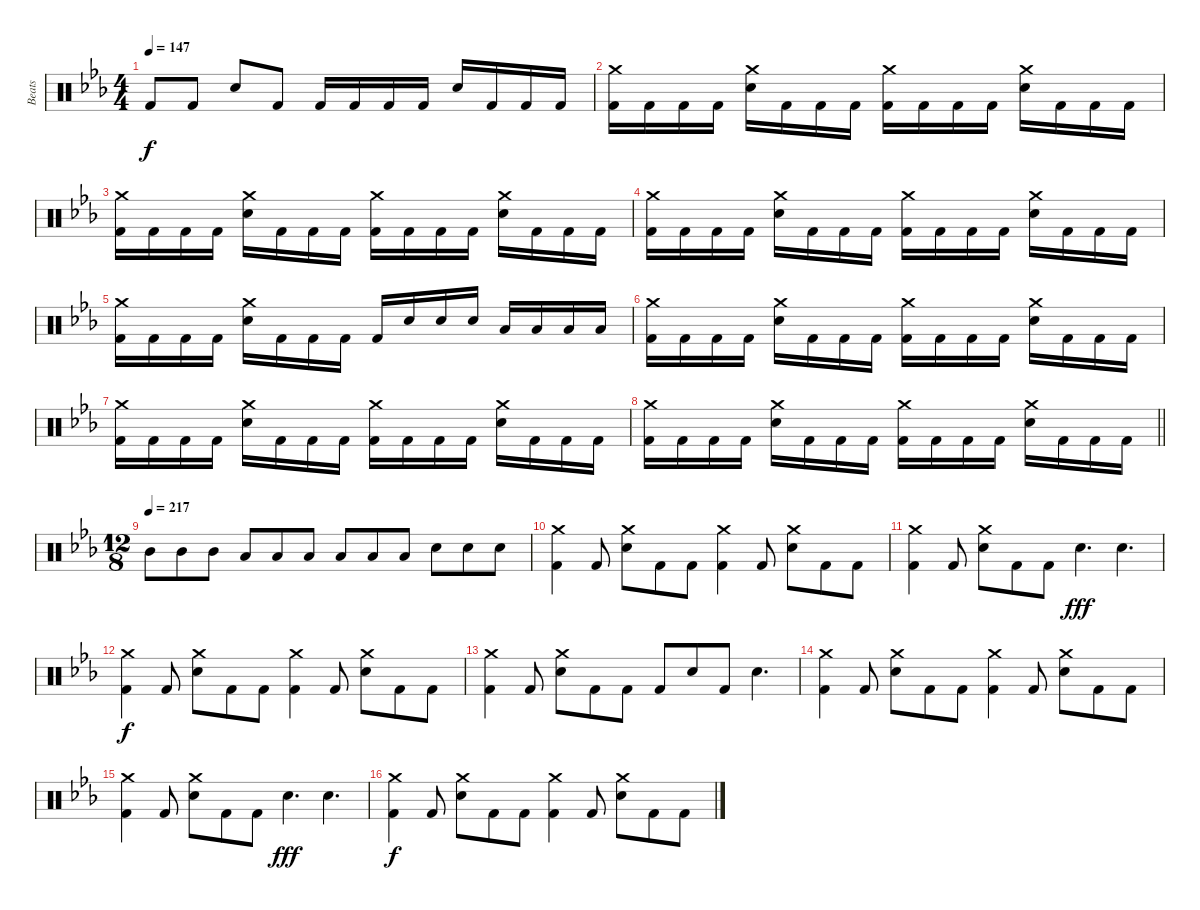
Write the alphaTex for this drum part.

\track ("Beats" "Beats") {instrument percussion}
\staff {score}
\articulation defaults
\ts (4 4)
\tempo 147
\clef neutral
\ks eb "Kick (hit) 2".8{dy f} "Kick (hit) 2".8 "Snare (hit) 2".8 "Kick (hit) 2".8 "Kick (hit) 2".16 "Kick (hit) 2".16 "Kick (hit) 2".16 "Kick (hit) 2".16 "Snare (hit) 2".16 "Kick (hit) 2".16 "Kick (hit) 2".16 "Kick (hit) 2".16
|
("Crash medium (hit)" "Kick (hit) 2").16 "Kick (hit) 2".16 "Kick (hit) 2".16 "Kick (hit) 2".16 ("Crash medium (hit)" "Snare (hit) 2").16 "Kick (hit) 2".16 "Kick (hit) 2".16 "Kick (hit) 2".16 ("Crash medium (hit)" "Kick (hit) 2").16 "Kick (hit) 2".16 "Kick (hit) 2".16 "Kick (hit) 2".16 ("Crash medium (hit)" "Snare (hit) 2").16 "Kick (hit) 2".16 "Kick (hit) 2".16 "Kick (hit) 2".16 |
("Crash medium (hit)" "Kick (hit) 2").16 "Kick (hit) 2".16 "Kick (hit) 2".16 "Kick (hit) 2".16 ("Crash medium (hit)" "Snare (hit) 2").16 "Kick (hit) 2".16 "Kick (hit) 2".16 "Kick (hit) 2".16 ("Crash medium (hit)" "Kick (hit) 2").16 "Kick (hit) 2".16 "Kick (hit) 2".16 "Kick (hit) 2".16 ("Crash medium (hit)" "Snare (hit) 2").16 "Kick (hit) 2".16 "Kick (hit) 2".16 "Kick (hit) 2".16 |
("Crash medium (hit)" "Kick (hit) 2").16 "Kick (hit) 2".16 "Kick (hit) 2".16 "Kick (hit) 2".16 ("Crash medium (hit)" "Snare (hit) 2").16 "Kick (hit) 2".16 "Kick (hit) 2".16 "Kick (hit) 2".16 ("Crash medium (hit)" "Kick (hit) 2").16 "Kick (hit) 2".16 "Kick (hit) 2".16 "Kick (hit) 2".16 ("Crash medium (hit)" "Snare (hit) 2").16 "Kick (hit) 2".16 "Kick (hit) 2".16 "Kick (hit) 2".16 |
("Crash medium (hit)" "Kick (hit) 2").16 "Kick (hit) 2".16 "Kick (hit) 2".16 "Kick (hit) 2".16 ("Crash medium (hit)" "Snare (hit) 2").16 "Kick (hit) 2".16 "Kick (hit) 2".16 "Kick (hit) 2".16 "Kick (hit) 2".16 "Snare (hit) 2".16 "Snare (hit) 2".16 "Snare (hit) 2".16 "Low Tom (hit)".16 "Low Tom (hit)".16 "Low Floor Tom (hit)".16 "Low Floor Tom (hit)".16 |
("Crash medium (hit)" "Kick (hit) 2").16 "Kick (hit) 2".16 "Kick (hit) 2".16 "Kick (hit) 2".16 ("Crash medium (hit)" "Snare (hit) 2").16 "Kick (hit) 2".16 "Kick (hit) 2".16 "Kick (hit) 2".16 ("Crash medium (hit)" "Kick (hit) 2").16 "Kick (hit) 2".16 "Kick (hit) 2".16 "Kick (hit) 2".16 ("Crash medium (hit)" "Snare (hit) 2").16 "Kick (hit) 2".16 "Kick (hit) 2".16 "Kick (hit) 2".16 |
("Crash medium (hit)" "Kick (hit) 2").16 "Kick (hit) 2".16 "Kick (hit) 2".16 "Kick (hit) 2".16 ("Crash medium (hit)" "Snare (hit) 2").16 "Kick (hit) 2".16 "Kick (hit) 2".16 "Kick (hit) 2".16 ("Crash medium (hit)" "Kick (hit) 2").16 "Kick (hit) 2".16 "Kick (hit) 2".16 "Kick (hit) 2".16 ("Crash medium (hit)" "Snare (hit) 2").16 "Kick (hit) 2".16 "Kick (hit) 2".16 "Kick (hit) 2".16 |
\barLineRight lightlight
("Crash medium (hit)" "Kick (hit) 2").16 "Kick (hit) 2".16 "Kick (hit) 2".16 "Kick (hit) 2".16 ("Crash medium (hit)" "Snare (hit) 2").16 "Kick (hit) 2".16 "Kick (hit) 2".16 "Kick (hit) 2".16 ("Crash medium (hit)" "Kick (hit) 2").16 "Kick (hit) 2".16 "Kick (hit) 2".16 "Kick (hit) 2".16 ("Crash medium (hit)" "Snare (hit) 2").16 "Kick (hit) 2".16 "Kick (hit) 2".16 "Kick (hit) 2".16 |
\ts (12 8)
\tempo (217)
"Mid Tom (hit)".8 "Mid Tom (hit)".8 "Mid Tom (hit)".8 "Low Tom (hit)".8 "Low Tom (hit)".8 "Low Tom (hit)".8 "Low Floor Tom (hit)".8 "Low Floor Tom (hit)".8 "Low Floor Tom (hit)".8 "Snare (hit) 2".8 "Snare (hit) 2".8 "Snare (hit) 2".8 |
("Crash medium (hit)" "Kick (hit) 2").4 "Kick (hit) 2".8 ("Crash medium (hit)" "Snare (hit) 2").8 "Kick (hit) 2".8 "Kick (hit) 2".8 ("Crash medium (hit)" "Kick (hit) 2").4 "Kick (hit) 2".8 ("Crash medium (hit)" "Snare (hit) 2").8 "Kick (hit) 2".8 "Kick (hit) 2".8 |
("Crash medium (hit)" "Kick (hit) 2").4 "Kick (hit) 2".8 ("Crash medium (hit)" "Snare (hit) 2").8 "Kick (hit) 2".8 "Kick (hit) 2".8 "Snare (hit) 2".4{d dy fff} "Snare (hit) 2".4{d} |
("Crash medium (hit)" "Kick (hit) 2").4{dy f} "Kick (hit) 2".8 ("Crash medium (hit)" "Snare (hit) 2").8 "Kick (hit) 2".8 "Kick (hit) 2".8 ("Crash medium (hit)" "Kick (hit) 2").4 "Kick (hit) 2".8 ("Crash medium (hit)" "Snare (hit) 2").8 "Kick (hit) 2".8 "Kick (hit) 2".8 |
("Crash medium (hit)" "Kick (hit) 2").4 "Kick (hit) 2".8 ("Crash medium (hit)" "Snare (hit) 2").8 "Kick (hit) 2".8 "Kick (hit) 2".8 "Kick (hit) 2".8 "Snare (hit) 2".8 "Kick (hit) 2".8 "Snare (hit) 2".4{d} |
("Crash medium (hit)" "Kick (hit) 2").4 "Kick (hit) 2".8 ("Crash medium (hit)" "Snare (hit) 2").8 "Kick (hit) 2".8 "Kick (hit) 2".8 ("Crash medium (hit)" "Kick (hit) 2").4 "Kick (hit) 2".8 ("Crash medium (hit)" "Snare (hit) 2").8 "Kick (hit) 2".8 "Kick (hit) 2".8 |
("Crash medium (hit)" "Kick (hit) 2").4 "Kick (hit) 2".8 ("Crash medium (hit)" "Snare (hit) 2").8 "Kick (hit) 2".8 "Kick (hit) 2".8 "Snare (hit) 2".4{d dy fff} "Snare (hit) 2".4{d} |
("Crash medium (hit)" "Kick (hit) 2").4{dy f} "Kick (hit) 2".8 ("Crash medium (hit)" "Snare (hit) 2").8 "Kick (hit) 2".8 "Kick (hit) 2".8 ("Crash medium (hit)" "Kick (hit) 2").4 "Kick (hit) 2".8 ("Crash medium (hit)" "Snare (hit) 2").8 "Kick (hit) 2".8 "Kick (hit) 2".8
